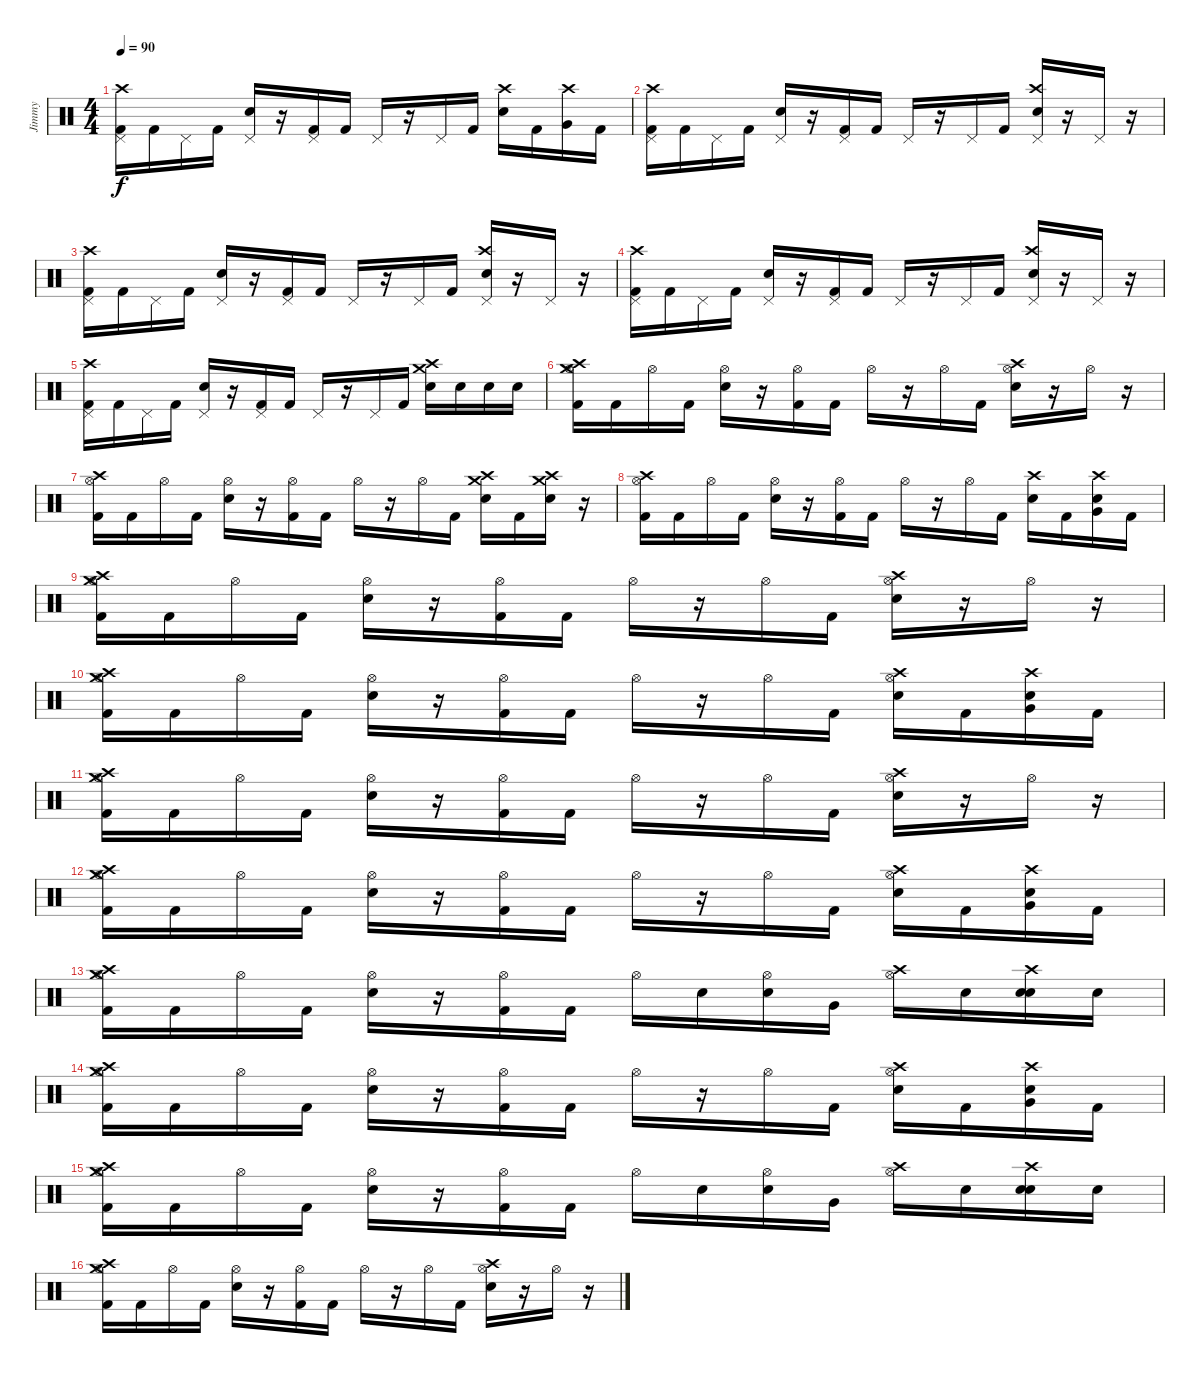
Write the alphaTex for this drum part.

\track ("Jimmy" "Jimmy") {instrument percussion}
\staff {score}
\articulation defaults
\ts (4 4)
\tempo 90
\clef neutral
\ks c
("Kick (hit) 2" "Pedal Hi-Hat (hit)" "Crash high (hit)").16{dy f} "Kick (hit) 2".16 "Pedal Hi-Hat (hit)".16 "Kick (hit) 2".16 ("Electric Snare (hit)" "Pedal Hi-Hat (hit)").16 r.16 ("Kick (hit) 2" "Pedal Hi-Hat (hit)").16 "Kick (hit) 2".16 "Pedal Hi-Hat (hit)".16 r.16 "Pedal Hi-Hat (hit)".16 "Kick (hit) 2".16 ("Electric Snare (hit)" "Crash high (hit)").16 "Kick (hit) 2".16 ("Very Low Tom (hit)" "Crash high (hit)").16 "Kick (hit) 2".16 |
("Kick (hit) 2" "Pedal Hi-Hat (hit)" "Crash high (hit)").16 "Kick (hit) 2".16 "Pedal Hi-Hat (hit)".16 "Kick (hit) 2".16 ("Electric Snare (hit)" "Pedal Hi-Hat (hit)").16 r.16 ("Kick (hit) 2" "Pedal Hi-Hat (hit)").16 "Kick (hit) 2".16 "Pedal Hi-Hat (hit)".16 r.16 "Pedal Hi-Hat (hit)".16 "Kick (hit) 2".16 ("Electric Snare (hit)" "Pedal Hi-Hat (hit)" "Crash high (hit)").16 r.16 "Pedal Hi-Hat (hit)".16 r.16 |
("Kick (hit) 2" "Pedal Hi-Hat (hit)" "Crash high (hit)").16 "Kick (hit) 2".16 "Pedal Hi-Hat (hit)".16 "Kick (hit) 2".16 ("Electric Snare (hit)" "Pedal Hi-Hat (hit)").16 r.16 ("Kick (hit) 2" "Pedal Hi-Hat (hit)").16 "Kick (hit) 2".16 "Pedal Hi-Hat (hit)".16 r.16 "Pedal Hi-Hat (hit)".16 "Kick (hit) 2".16 ("Electric Snare (hit)" "Pedal Hi-Hat (hit)" "Crash high (hit)").16 r.16 "Pedal Hi-Hat (hit)".16 r.16 |
("Kick (hit) 2" "Pedal Hi-Hat (hit)" "Crash high (hit)").16 "Kick (hit) 2".16 "Pedal Hi-Hat (hit)".16 "Kick (hit) 2".16 ("Electric Snare (hit)" "Pedal Hi-Hat (hit)").16 r.16 ("Kick (hit) 2" "Pedal Hi-Hat (hit)").16 "Kick (hit) 2".16 "Pedal Hi-Hat (hit)".16 r.16 "Pedal Hi-Hat (hit)".16 "Kick (hit) 2".16 ("Electric Snare (hit)" "Pedal Hi-Hat (hit)" "Crash high (hit)").16 r.16 "Pedal Hi-Hat (hit)".16 r.16 |
("Kick (hit) 2" "Pedal Hi-Hat (hit)" "Crash high (hit)").16 "Kick (hit) 2".16 "Pedal Hi-Hat (hit)".16 "Kick (hit) 2".16 ("Electric Snare (hit)" "Pedal Hi-Hat (hit)").16 r.16 ("Kick (hit) 2" "Pedal Hi-Hat (hit)").16 "Kick (hit) 2".16 "Pedal Hi-Hat (hit)".16 r.16 "Pedal Hi-Hat (hit)".16 "Kick (hit) 2".16 ("Electric Snare (hit)" "Crash high (hit)" "Crash medium (hit)").16 "Electric Snare (hit)".16 "Electric Snare (hit)".16 "Electric Snare (hit)".16 |
("Kick (hit) 2" "Hi-Hat (open)" "Crash high (hit)" "Crash medium (hit)").16 "Kick (hit) 2".16 "Hi-Hat (open)".16 "Kick (hit) 2".16 ("Electric Snare (hit)" "Hi-Hat (open)").16 r.16 ("Kick (hit) 2" "Hi-Hat (open)").16 "Kick (hit) 2".16 "Hi-Hat (open)".16 r.16 "Hi-Hat (open)".16 "Kick (hit) 2".16 ("Electric Snare (hit)" "Hi-Hat (open)" "Crash high (hit)").16 r.16 "Hi-Hat (open)".16 r.16 |
("Kick (hit) 2" "Hi-Hat (open)" "Crash high (hit)").16 "Kick (hit) 2".16 "Hi-Hat (open)".16 "Kick (hit) 2".16 ("Electric Snare (hit)" "Hi-Hat (open)").16 r.16 ("Kick (hit) 2" "Hi-Hat (open)").16 "Kick (hit) 2".16 "Hi-Hat (open)".16 r.16 "Hi-Hat (open)".16 "Kick (hit) 2".16 ("Electric Snare (hit)" "Crash high (hit)" "Crash medium (hit)").16 "Kick (hit) 2".16 ("Electric Snare (hit)" "Crash high (hit)" "Crash medium (hit)").16 r.16 |
("Kick (hit) 2" "Hi-Hat (open)" "Crash high (hit)").16 "Kick (hit) 2".16 "Hi-Hat (open)".16 "Kick (hit) 2".16 ("Electric Snare (hit)" "Hi-Hat (open)").16 r.16 ("Kick (hit) 2" "Hi-Hat (open)").16 "Kick (hit) 2".16 "Hi-Hat (open)".16 r.16 "Hi-Hat (open)".16 "Kick (hit) 2".16 ("Electric Snare (hit)" "Crash high (hit)").16 "Kick (hit) 2".16 ("Electric Snare (hit)" "Crash high (hit)" "Very Low Tom (hit)").16 "Kick (hit) 2".16 |
("Kick (hit) 2" "Hi-Hat (open)" "Crash high (hit)" "Crash medium (hit)").16 "Kick (hit) 2".16 "Hi-Hat (open)".16 "Kick (hit) 2".16 ("Electric Snare (hit)" "Hi-Hat (open)").16 r.16 ("Kick (hit) 2" "Hi-Hat (open)").16 "Kick (hit) 2".16 "Hi-Hat (open)".16 r.16 "Hi-Hat (open)".16 "Kick (hit) 2".16 ("Electric Snare (hit)" "Hi-Hat (open)" "Crash high (hit)").16 r.16 "Hi-Hat (open)".16 r.16 |
("Kick (hit) 2" "Hi-Hat (open)" "Crash high (hit)" "Crash medium (hit)").16 "Kick (hit) 2".16 "Hi-Hat (open)".16 "Kick (hit) 2".16 ("Electric Snare (hit)" "Hi-Hat (open)").16 r.16 ("Kick (hit) 2" "Hi-Hat (open)").16 "Kick (hit) 2".16 "Hi-Hat (open)".16 r.16 "Hi-Hat (open)".16 "Kick (hit) 2".16 ("Electric Snare (hit)" "Hi-Hat (open)" "Crash high (hit)").16 "Kick (hit) 2".16 ("Very Low Tom (hit)" "Electric Snare (hit)" "Crash high (hit)").16 "Kick (hit) 2".16 |
("Kick (hit) 2" "Hi-Hat (open)" "Crash high (hit)" "Crash medium (hit)").16 "Kick (hit) 2".16 "Hi-Hat (open)".16 "Kick (hit) 2".16 ("Electric Snare (hit)" "Hi-Hat (open)").16 r.16 ("Kick (hit) 2" "Hi-Hat (open)").16 "Kick (hit) 2".16 "Hi-Hat (open)".16 r.16 "Hi-Hat (open)".16 "Kick (hit) 2".16 ("Electric Snare (hit)" "Hi-Hat (open)" "Crash high (hit)").16 r.16 "Hi-Hat (open)".16 r.16 |
("Kick (hit) 2" "Hi-Hat (open)" "Crash high (hit)" "Crash medium (hit)").16 "Kick (hit) 2".16 "Hi-Hat (open)".16 "Kick (hit) 2".16 ("Electric Snare (hit)" "Hi-Hat (open)").16 r.16 ("Kick (hit) 2" "Hi-Hat (open)").16 "Kick (hit) 2".16 "Hi-Hat (open)".16 r.16 "Hi-Hat (open)".16 "Kick (hit) 2".16 ("Electric Snare (hit)" "Hi-Hat (open)" "Crash high (hit)").16 "Kick (hit) 2".16 ("Very Low Tom (hit)" "Electric Snare (hit)" "Crash high (hit)").16 "Kick (hit) 2".16 |
("Kick (hit) 2" "Hi-Hat (open)" "Crash high (hit)" "Crash medium (hit)").16 "Kick (hit) 2".16 "Hi-Hat (open)".16 "Kick (hit) 2".16 ("Electric Snare (hit)" "Hi-Hat (open)").16 r.16 ("Kick (hit) 2" "Hi-Hat (open)").16 "Kick (hit) 2".16 "Hi-Hat (open)".16 "Electric Snare (hit)".16 ("Electric Snare (hit)" "Hi-Hat (open)").16 "Very Low Tom (hit)".16 ("Hi-Hat (open)" "Crash high (hit)").16 "Electric Snare (hit)".16 ("Electric Snare (hit)" "Electric Snare (hit)" "Crash high (hit)").16 "Electric Snare (hit)".16 |
("Kick (hit) 2" "Hi-Hat (open)" "Crash high (hit)" "Crash medium (hit)").16 "Kick (hit) 2".16 "Hi-Hat (open)".16 "Kick (hit) 2".16 ("Electric Snare (hit)" "Hi-Hat (open)").16 r.16 ("Kick (hit) 2" "Hi-Hat (open)").16 "Kick (hit) 2".16 "Hi-Hat (open)".16 r.16 "Hi-Hat (open)".16 "Kick (hit) 2".16 ("Electric Snare (hit)" "Hi-Hat (open)" "Crash high (hit)").16 "Kick (hit) 2".16 ("Very Low Tom (hit)" "Electric Snare (hit)" "Crash high (hit)").16 "Kick (hit) 2".16 |
("Kick (hit) 2" "Hi-Hat (open)" "Crash high (hit)" "Crash medium (hit)").16 "Kick (hit) 2".16 "Hi-Hat (open)".16 "Kick (hit) 2".16 ("Electric Snare (hit)" "Hi-Hat (open)").16 r.16 ("Kick (hit) 2" "Hi-Hat (open)").16 "Kick (hit) 2".16 "Hi-Hat (open)".16 "Electric Snare (hit)".16 ("Electric Snare (hit)" "Hi-Hat (open)").16 "Very Low Tom (hit)".16 ("Hi-Hat (open)" "Crash high (hit)").16 "Electric Snare (hit)".16 ("Electric Snare (hit)" "Electric Snare (hit)" "Crash high (hit)").16 "Electric Snare (hit)".16 |
("Kick (hit) 2" "Hi-Hat (open)" "Crash high (hit)" "Crash medium (hit)").16 "Kick (hit) 2".16 "Hi-Hat (open)".16 "Kick (hit) 2".16 ("Electric Snare (hit)" "Hi-Hat (open)").16 r.16 ("Kick (hit) 2" "Hi-Hat (open)").16 "Kick (hit) 2".16 "Hi-Hat (open)".16 r.16 "Hi-Hat (open)".16 "Kick (hit) 2".16 ("Electric Snare (hit)" "Hi-Hat (open)" "Crash high (hit)").16 r.16 "Hi-Hat (open)".16 r.16
